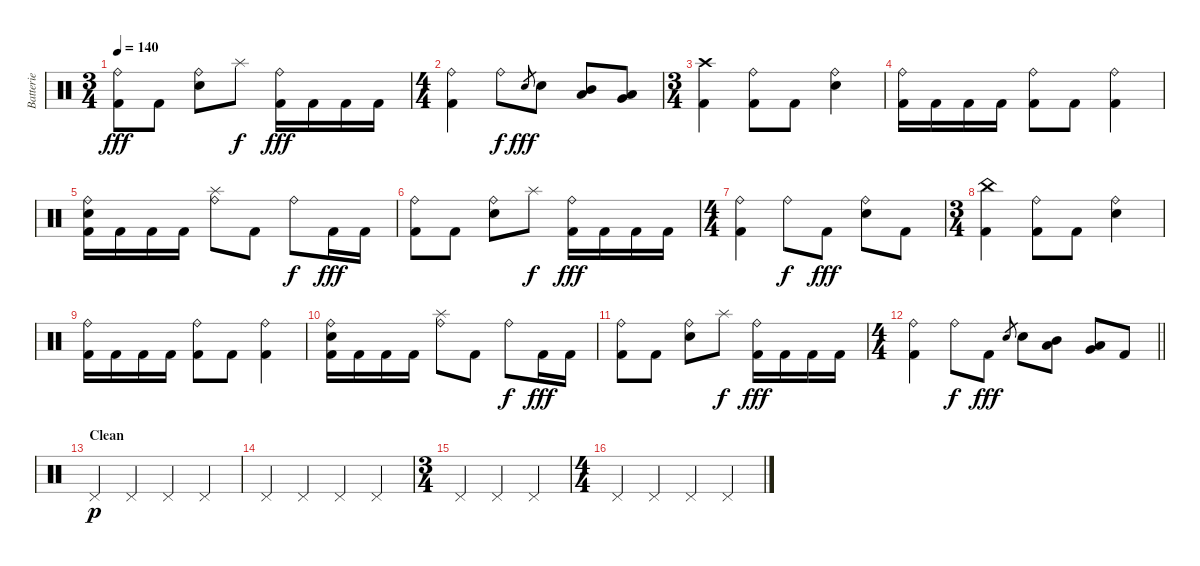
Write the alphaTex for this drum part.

\track ("Batterie" "Batterie") {instrument percussion}
\staff {score}
\articulation defaults
\ts (3 4)
\tempo 140
\clef neutral
\ks c
("Ride (bell)" "Kick (hit) 2").8{dy fff} "Kick (hit) 2".8 ("Ride (bell)" "Electric Snare (hit)").8 "Splash (hit)".8{dy f} ("Ride (bell)" "Kick (hit) 2").16{dy fff} "Kick (hit) 2".16 "Kick (hit) 2".16 "Kick (hit) 2".16 |
\ts (4 4)
("Ride (bell)" "Kick (hit) 2").4 "Ride (bell)".8{dy f} "Electric Snare (hit)".8{gr dy fff} "Electric Snare (hit)".8 ("Mid Tom (hit)" "Low Tom (hit)").8 ("Very Low Tom (hit)" "Low Floor Tom (hit)").8 |
\ts (3 4)
("Crash high (hit)" "Kick (hit) 2").4 ("Ride (bell)" "Kick (hit) 2").8 "Kick (hit) 2".8 ("Ride (bell)" "Electric Snare (hit)").4 |
("Ride (bell)" "Kick (hit) 2").16 "Kick (hit) 2".16 "Kick (hit) 2".16 "Kick (hit) 2".16 ("Ride (bell)" "Kick (hit) 2").8 "Kick (hit) 2".8 ("Ride (bell)" "Kick (hit) 2").4 |
("Ride (bell)" "Electric Snare (hit)" "Kick (hit) 2").16 "Kick (hit) 2".16 "Kick (hit) 2".16 "Kick (hit) 2".16 ("Ride (bell)" "Splash (hit)").8 "Kick (hit) 2".8 "Ride (bell)".8{dy f} "Kick (hit) 2".16{dy fff} "Kick (hit) 2".16 |
("Ride (bell)" "Kick (hit) 2").8 "Kick (hit) 2".8 ("Ride (bell)" "Electric Snare (hit)").8 "Splash (hit)".8{dy f} ("Ride (bell)" "Kick (hit) 2").16{dy fff} "Kick (hit) 2".16 "Kick (hit) 2".16 "Kick (hit) 2".16 |
\ts (4 4)
("Ride (bell)" "Kick (hit) 2").4 "Ride (bell)".8{dy f} "Kick (hit) 2".8{dy fff} ("Ride (bell)" "Electric Snare (hit)").8 "Kick (hit) 2".8 |
\ts (3 4)
("China (hit)" "Kick (hit) 2").4 ("Ride (bell)" "Kick (hit) 2").8 "Kick (hit) 2".8 ("Ride (bell)" "Electric Snare (hit)").4 |
("Ride (bell)" "Kick (hit) 2").16 "Kick (hit) 2".16 "Kick (hit) 2".16 "Kick (hit) 2".16 ("Ride (bell)" "Kick (hit) 2").8 "Kick (hit) 2".8 ("Ride (bell)" "Kick (hit) 2").4 |
("Ride (bell)" "Electric Snare (hit)" "Kick (hit) 2").16 "Kick (hit) 2".16 "Kick (hit) 2".16 "Kick (hit) 2".16 ("Ride (bell)" "Splash (hit)").8 "Kick (hit) 2".8 "Ride (bell)".8{dy f} "Kick (hit) 2".16{dy fff} "Kick (hit) 2".16 |
("Ride (bell)" "Kick (hit) 2").8 "Kick (hit) 2".8 ("Ride (bell)" "Electric Snare (hit)").8 "Splash (hit)".8{dy f} ("Ride (bell)" "Kick (hit) 2").16{dy fff} "Kick (hit) 2".16 "Kick (hit) 2".16 "Kick (hit) 2".16 |
\ts (4 4)
\barLineRight lightlight
("Ride (bell)" "Kick (hit) 2").4 "Ride (bell)".8{dy f} "Kick (hit) 2".8{dy fff} "Electric Snare (hit)".8{gr} "Electric Snare (hit)".8 ("Mid Tom (hit)" "Low Tom (hit)").8 ("Very Low Tom (hit)" "Low Floor Tom (hit)").8 "Kick (hit) 2".8 |
\section ("" "Clean")
"Pedal Hi-Hat (hit)".4{dy p} "Pedal Hi-Hat (hit)".4 "Pedal Hi-Hat (hit)".4 "Pedal Hi-Hat (hit)".4 |
"Pedal Hi-Hat (hit)".4 "Pedal Hi-Hat (hit)".4 "Pedal Hi-Hat (hit)".4 "Pedal Hi-Hat (hit)".4 |
\ts (3 4)
"Pedal Hi-Hat (hit)".4 "Pedal Hi-Hat (hit)".4 "Pedal Hi-Hat (hit)".4 |
\ts (4 4)
"Pedal Hi-Hat (hit)".4 "Pedal Hi-Hat (hit)".4 "Pedal Hi-Hat (hit)".4 "Pedal Hi-Hat (hit)".4
